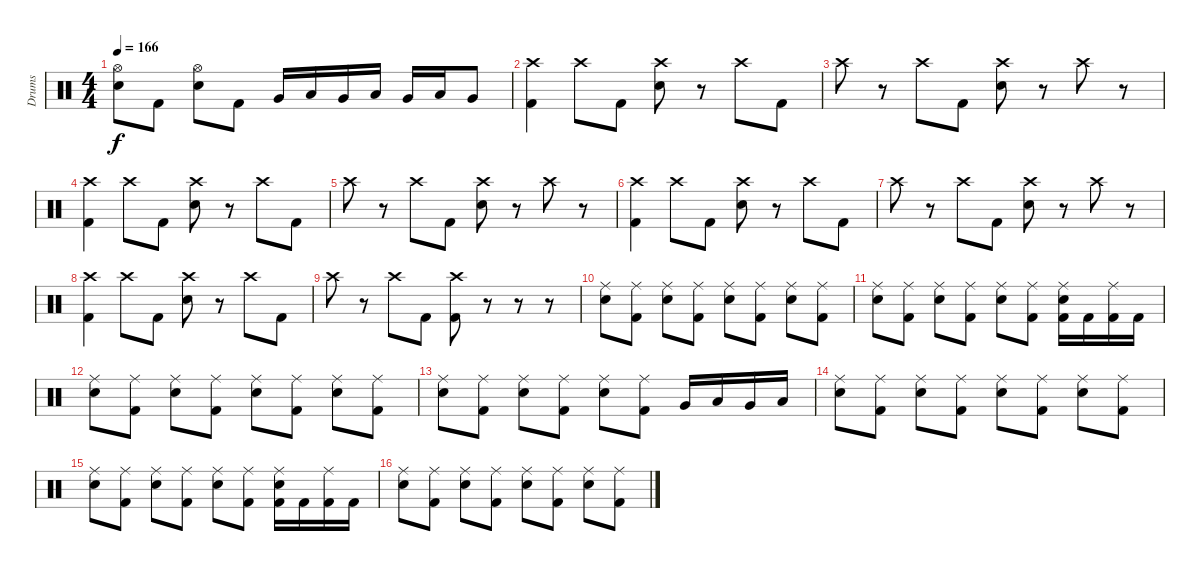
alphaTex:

\track ("Drums" "Drums") {instrument percussion}
\staff {score}
\articulation defaults
\ts (4 4)
\tempo 166
\clef neutral
\ks c
("Hi-Hat (open)" "Snare (hit) 2").8{dy f} "Kick (hit) 2".8 ("Hi-Hat (open)" "Snare (hit) 2").8 "Kick (hit) 2".8 "Very Low Tom (hit)".16 "Low Tom (hit)".16 "Very Low Tom (hit)".16 "Low Tom (hit)".16 "Very Low Tom (hit)".16 "Low Tom (hit)".16 "Very Low Tom (hit)".8 |
("Crash high (hit)" "Kick (hit) 2").4 "Crash high (hit)".8 "Kick (hit) 2".8 ("Crash high (hit)" "Snare (hit) 2").8 r.8 "Crash high (hit)".8 "Kick (hit) 2".8 |
"Crash high (hit)".8 r.8 "Crash high (hit)".8 "Kick (hit) 2".8 ("Crash high (hit)" "Snare (hit) 2").8 r.8 "Crash high (hit)".8 r.8 |
("Crash high (hit)" "Kick (hit) 2").4 "Crash high (hit)".8 "Kick (hit) 2".8 ("Crash high (hit)" "Snare (hit) 2").8 r.8 "Crash high (hit)".8 "Kick (hit) 2".8 |
"Crash high (hit)".8 r.8 "Crash high (hit)".8 "Kick (hit) 2".8 ("Crash high (hit)" "Snare (hit) 2").8 r.8 "Crash high (hit)".8 r.8 |
("Crash high (hit)" "Kick (hit) 2").4 "Crash high (hit)".8 "Kick (hit) 2".8 ("Crash high (hit)" "Snare (hit) 2").8 r.8 "Crash high (hit)".8 "Kick (hit) 2".8 |
"Crash high (hit)".8 r.8 "Crash high (hit)".8 "Kick (hit) 2".8 ("Crash high (hit)" "Snare (hit) 2").8 r.8 "Crash high (hit)".8 r.8 |
("Crash high (hit)" "Kick (hit) 2").4 "Crash high (hit)".8 "Kick (hit) 2".8 ("Crash high (hit)" "Snare (hit) 2").8 r.8 "Crash high (hit)".8 "Kick (hit) 2".8 |
"Crash high (hit)".8 r.8 "Crash high (hit)".8 "Kick (hit) 2".8 ("Crash high (hit)" "Kick (hit) 2").8 r.8 r.8 r.8 |
("Ride (middle)" "Snare (hit) 2").8 ("Ride (middle)" "Kick (hit) 2").8 ("Ride (middle)" "Snare (hit) 2").8 ("Ride (middle)" "Kick (hit) 2").8 ("Ride (middle)" "Snare (hit) 2").8 ("Ride (middle)" "Kick (hit) 2").8 ("Ride (middle)" "Snare (hit) 2").8 ("Ride (middle)" "Kick (hit) 2").8 |
("Ride (middle)" "Snare (hit) 2").8 ("Ride (middle)" "Kick (hit) 2").8 ("Ride (middle)" "Snare (hit) 2").8 ("Ride (middle)" "Kick (hit) 2").8 ("Ride (middle)" "Snare (hit) 2").8 ("Ride (middle)" "Kick (hit) 2").8 ("Ride (middle)" "Snare (hit) 2" "Kick (hit) 2").16 "Kick (hit) 2".16 ("Ride (middle)" "Kick (hit) 2").16 "Kick (hit) 2".16 |
("Ride (middle)" "Snare (hit) 2").8 ("Ride (middle)" "Kick (hit) 2").8 ("Ride (middle)" "Snare (hit) 2").8 ("Ride (middle)" "Kick (hit) 2").8 ("Ride (middle)" "Snare (hit) 2").8 ("Ride (middle)" "Kick (hit) 2").8 ("Ride (middle)" "Snare (hit) 2").8 ("Ride (middle)" "Kick (hit) 2").8 |
("Ride (middle)" "Snare (hit) 2").8 ("Ride (middle)" "Kick (hit) 2").8 ("Ride (middle)" "Snare (hit) 2").8 ("Ride (middle)" "Kick (hit) 2").8 ("Ride (middle)" "Snare (hit) 2").8 ("Ride (middle)" "Kick (hit) 2").8 "Very Low Tom (hit)".16 "Low Tom (hit)".16 "Very Low Tom (hit)".16 "Low Tom (hit)".16 |
("Ride (middle)" "Snare (hit) 2").8 ("Ride (middle)" "Kick (hit) 2").8 ("Ride (middle)" "Snare (hit) 2").8 ("Ride (middle)" "Kick (hit) 2").8 ("Ride (middle)" "Snare (hit) 2").8 ("Ride (middle)" "Kick (hit) 2").8 ("Ride (middle)" "Snare (hit) 2").8 ("Ride (middle)" "Kick (hit) 2").8 |
("Ride (middle)" "Snare (hit) 2").8 ("Ride (middle)" "Kick (hit) 2").8 ("Ride (middle)" "Snare (hit) 2").8 ("Ride (middle)" "Kick (hit) 2").8 ("Ride (middle)" "Snare (hit) 2").8 ("Ride (middle)" "Kick (hit) 2").8 ("Ride (middle)" "Snare (hit) 2" "Kick (hit) 2").16 "Kick (hit) 2".16 ("Ride (middle)" "Kick (hit) 2").16 "Kick (hit) 2".16 |
("Ride (middle)" "Snare (hit) 2").8 ("Ride (middle)" "Kick (hit) 2").8 ("Ride (middle)" "Snare (hit) 2").8 ("Ride (middle)" "Kick (hit) 2").8 ("Ride (middle)" "Snare (hit) 2").8 ("Ride (middle)" "Kick (hit) 2").8 ("Ride (middle)" "Snare (hit) 2").8 ("Ride (middle)" "Kick (hit) 2").8
